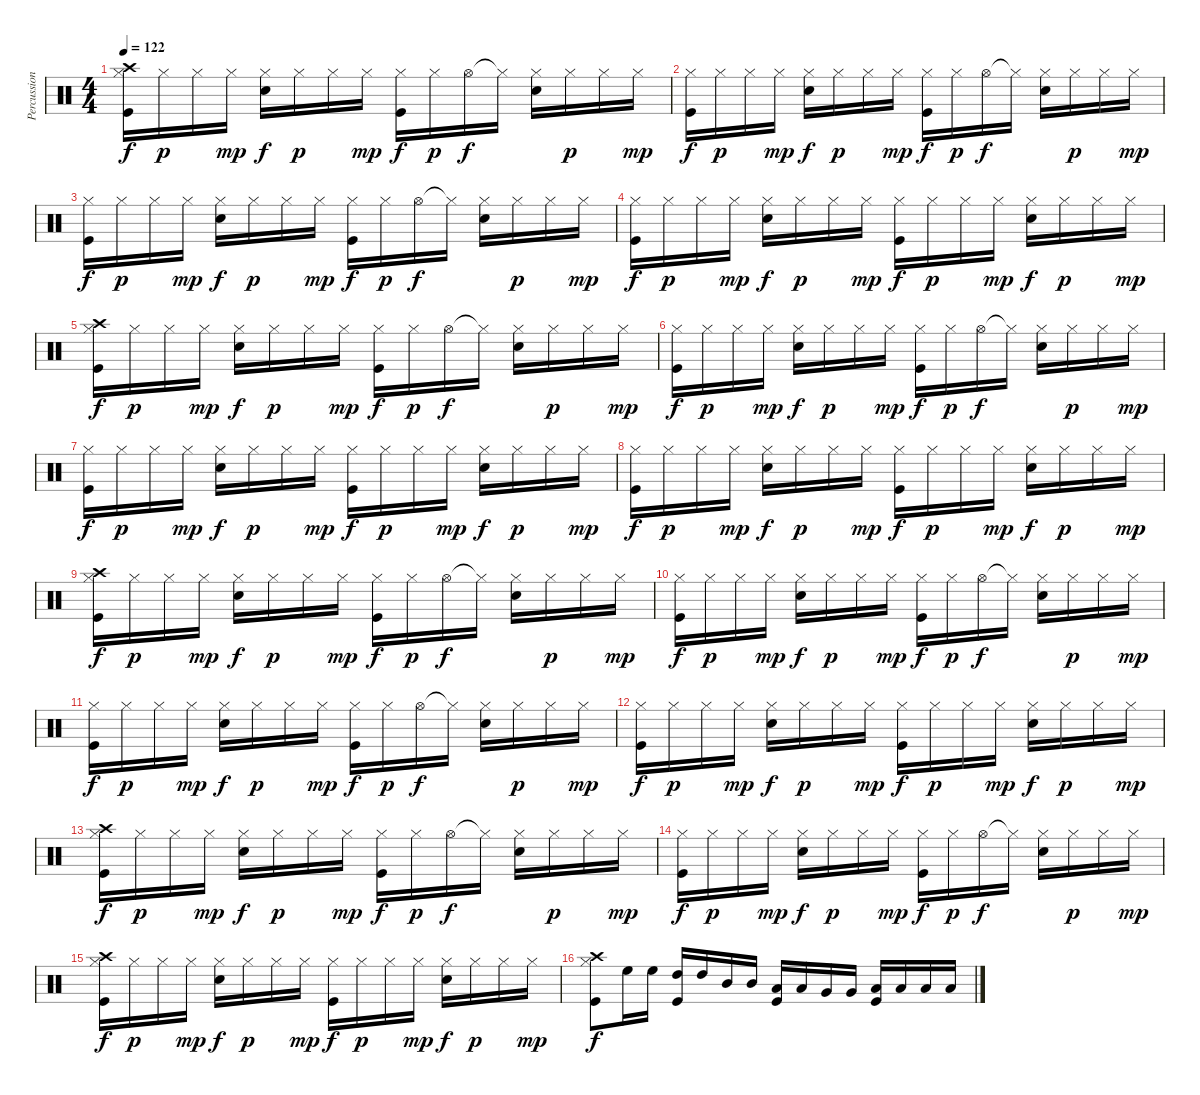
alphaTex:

\track ("Percussioni" "Percussion") {instrument percussion}
\staff {score}
\articulation defaults
\ts (4 4)
\tempo 122
\clef neutral
\ks c
("Crash high (hit)" "Hi-Hat (closed)" "Kick (hit)").16{dy f} "Hi-Hat (closed)".16{dy p} "Hi-Hat (closed)".16 "Hi-Hat (closed)".16{dy mp} ("Hi-Hat (closed)" "Snare (hit) 2").16{dy f} "Hi-Hat (closed)".16{dy p} "Hi-Hat (closed)".16 "Hi-Hat (closed)".16{dy mp} ("Hi-Hat (closed)" "Kick (hit)").16{dy f} "Hi-Hat (closed)".16{dy p} "Hi-Hat (open)".16{dy f} "Hi-Hat (closed)"{t}.16 ("Hi-Hat (closed)" "Snare (hit) 2").16 "Hi-Hat (closed)".16{dy p} "Hi-Hat (closed)".16 "Hi-Hat (closed)".16{dy mp} |
("Hi-Hat (closed)" "Kick (hit)").16{dy f} "Hi-Hat (closed)".16{dy p} "Hi-Hat (closed)".16 "Hi-Hat (closed)".16{dy mp} ("Hi-Hat (closed)" "Snare (hit) 2").16{dy f} "Hi-Hat (closed)".16{dy p} "Hi-Hat (closed)".16 "Hi-Hat (closed)".16{dy mp} ("Hi-Hat (closed)" "Kick (hit)").16{dy f} "Hi-Hat (closed)".16{dy p} "Hi-Hat (open)".16{dy f} "Hi-Hat (closed)"{t}.16 ("Hi-Hat (closed)" "Snare (hit) 2").16 "Hi-Hat (closed)".16{dy p} "Hi-Hat (closed)".16 "Hi-Hat (closed)".16{dy mp} |
("Hi-Hat (closed)" "Kick (hit)").16{dy f} "Hi-Hat (closed)".16{dy p} "Hi-Hat (closed)".16 "Hi-Hat (closed)".16{dy mp} ("Hi-Hat (closed)" "Snare (hit) 2").16{dy f} "Hi-Hat (closed)".16{dy p} "Hi-Hat (closed)".16 "Hi-Hat (closed)".16{dy mp} ("Hi-Hat (closed)" "Kick (hit)").16{dy f} "Hi-Hat (closed)".16{dy p} "Hi-Hat (open)".16{dy f} "Hi-Hat (closed)"{t}.16 ("Hi-Hat (closed)" "Snare (hit) 2").16 "Hi-Hat (closed)".16{dy p} "Hi-Hat (closed)".16 "Hi-Hat (closed)".16{dy mp} |
("Hi-Hat (closed)" "Kick (hit)").16{dy f} "Hi-Hat (closed)".16{dy p} "Hi-Hat (closed)".16 "Hi-Hat (closed)".16{dy mp} ("Hi-Hat (closed)" "Snare (hit) 2").16{dy f} "Hi-Hat (closed)".16{dy p} "Hi-Hat (closed)".16 "Hi-Hat (closed)".16{dy mp} ("Hi-Hat (closed)" "Kick (hit)").16{dy f} "Hi-Hat (closed)".16{dy p} "Hi-Hat (closed)".16 "Hi-Hat (closed)".16{dy mp} ("Hi-Hat (closed)" "Snare (hit) 2").16{dy f} "Hi-Hat (closed)".16{dy p} "Hi-Hat (closed)".16 "Hi-Hat (closed)".16{dy mp} |
("Crash high (hit)" "Hi-Hat (closed)" "Kick (hit)").16{dy f} "Hi-Hat (closed)".16{dy p} "Hi-Hat (closed)".16 "Hi-Hat (closed)".16{dy mp} ("Hi-Hat (closed)" "Snare (hit) 2").16{dy f} "Hi-Hat (closed)".16{dy p} "Hi-Hat (closed)".16 "Hi-Hat (closed)".16{dy mp} ("Hi-Hat (closed)" "Kick (hit)").16{dy f} "Hi-Hat (closed)".16{dy p} "Hi-Hat (open)".16{dy f} "Hi-Hat (closed)"{t}.16 ("Hi-Hat (closed)" "Snare (hit) 2").16 "Hi-Hat (closed)".16{dy p} "Hi-Hat (closed)".16 "Hi-Hat (closed)".16{dy mp} |
("Hi-Hat (closed)" "Kick (hit)").16{dy f} "Hi-Hat (closed)".16{dy p} "Hi-Hat (closed)".16 "Hi-Hat (closed)".16{dy mp} ("Hi-Hat (closed)" "Snare (hit) 2").16{dy f} "Hi-Hat (closed)".16{dy p} "Hi-Hat (closed)".16 "Hi-Hat (closed)".16{dy mp} ("Hi-Hat (closed)" "Kick (hit)").16{dy f} "Hi-Hat (closed)".16{dy p} "Hi-Hat (open)".16{dy f} "Hi-Hat (closed)"{t}.16 ("Hi-Hat (closed)" "Snare (hit) 2").16 "Hi-Hat (closed)".16{dy p} "Hi-Hat (closed)".16 "Hi-Hat (closed)".16{dy mp} |
("Hi-Hat (closed)" "Kick (hit)").16{dy f} "Hi-Hat (closed)".16{dy p} "Hi-Hat (closed)".16 "Hi-Hat (closed)".16{dy mp} ("Hi-Hat (closed)" "Snare (hit) 2").16{dy f} "Hi-Hat (closed)".16{dy p} "Hi-Hat (closed)".16 "Hi-Hat (closed)".16{dy mp} ("Hi-Hat (closed)" "Kick (hit)").16{dy f} "Hi-Hat (closed)".16{dy p} "Hi-Hat (closed)".16 "Hi-Hat (closed)".16{dy mp} ("Hi-Hat (closed)" "Snare (hit) 2").16{dy f} "Hi-Hat (closed)".16{dy p} "Hi-Hat (closed)".16 "Hi-Hat (closed)".16{dy mp} |
("Hi-Hat (closed)" "Kick (hit)").16{dy f} "Hi-Hat (closed)".16{dy p} "Hi-Hat (closed)".16 "Hi-Hat (closed)".16{dy mp} ("Hi-Hat (closed)" "Snare (hit) 2").16{dy f} "Hi-Hat (closed)".16{dy p} "Hi-Hat (closed)".16 "Hi-Hat (closed)".16{dy mp} ("Hi-Hat (closed)" "Kick (hit)").16{dy f} "Hi-Hat (closed)".16{dy p} "Hi-Hat (closed)".16 "Hi-Hat (closed)".16{dy mp} ("Hi-Hat (closed)" "Snare (hit) 2").16{dy f} "Hi-Hat (closed)".16{dy p} "Hi-Hat (closed)".16 "Hi-Hat (closed)".16{dy mp} |
("Crash high (hit)" "Hi-Hat (closed)" "Kick (hit)").16{dy f} "Hi-Hat (closed)".16{dy p} "Hi-Hat (closed)".16 "Hi-Hat (closed)".16{dy mp} ("Hi-Hat (closed)" "Snare (hit) 2").16{dy f} "Hi-Hat (closed)".16{dy p} "Hi-Hat (closed)".16 "Hi-Hat (closed)".16{dy mp} ("Hi-Hat (closed)" "Kick (hit)").16{dy f} "Hi-Hat (closed)".16{dy p} "Hi-Hat (open)".16{dy f} "Hi-Hat (closed)"{t}.16 ("Hi-Hat (closed)" "Snare (hit) 2").16 "Hi-Hat (closed)".16{dy p} "Hi-Hat (closed)".16 "Hi-Hat (closed)".16{dy mp} |
("Hi-Hat (closed)" "Kick (hit)").16{dy f} "Hi-Hat (closed)".16{dy p} "Hi-Hat (closed)".16 "Hi-Hat (closed)".16{dy mp} ("Hi-Hat (closed)" "Snare (hit) 2").16{dy f} "Hi-Hat (closed)".16{dy p} "Hi-Hat (closed)".16 "Hi-Hat (closed)".16{dy mp} ("Hi-Hat (closed)" "Kick (hit)").16{dy f} "Hi-Hat (closed)".16{dy p} "Hi-Hat (open)".16{dy f} "Hi-Hat (closed)"{t}.16 ("Hi-Hat (closed)" "Snare (hit) 2").16 "Hi-Hat (closed)".16{dy p} "Hi-Hat (closed)".16 "Hi-Hat (closed)".16{dy mp} |
("Hi-Hat (closed)" "Kick (hit)").16{dy f} "Hi-Hat (closed)".16{dy p} "Hi-Hat (closed)".16 "Hi-Hat (closed)".16{dy mp} ("Hi-Hat (closed)" "Snare (hit) 2").16{dy f} "Hi-Hat (closed)".16{dy p} "Hi-Hat (closed)".16 "Hi-Hat (closed)".16{dy mp} ("Hi-Hat (closed)" "Kick (hit)").16{dy f} "Hi-Hat (closed)".16{dy p} "Hi-Hat (open)".16{dy f} "Hi-Hat (closed)"{t}.16 ("Hi-Hat (closed)" "Snare (hit) 2").16 "Hi-Hat (closed)".16{dy p} "Hi-Hat (closed)".16 "Hi-Hat (closed)".16{dy mp} |
("Hi-Hat (closed)" "Kick (hit)").16{dy f} "Hi-Hat (closed)".16{dy p} "Hi-Hat (closed)".16 "Hi-Hat (closed)".16{dy mp} ("Hi-Hat (closed)" "Snare (hit) 2").16{dy f} "Hi-Hat (closed)".16{dy p} "Hi-Hat (closed)".16 "Hi-Hat (closed)".16{dy mp} ("Hi-Hat (closed)" "Kick (hit)").16{dy f} "Hi-Hat (closed)".16{dy p} "Hi-Hat (closed)".16 "Hi-Hat (closed)".16{dy mp} ("Hi-Hat (closed)" "Snare (hit) 2").16{dy f} "Hi-Hat (closed)".16{dy p} "Hi-Hat (closed)".16 "Hi-Hat (closed)".16{dy mp} |
("Crash high (hit)" "Hi-Hat (closed)" "Kick (hit)").16{dy f} "Hi-Hat (closed)".16{dy p} "Hi-Hat (closed)".16 "Hi-Hat (closed)".16{dy mp} ("Hi-Hat (closed)" "Snare (hit) 2").16{dy f} "Hi-Hat (closed)".16{dy p} "Hi-Hat (closed)".16 "Hi-Hat (closed)".16{dy mp} ("Hi-Hat (closed)" "Kick (hit)").16{dy f} "Hi-Hat (closed)".16{dy p} "Hi-Hat (open)".16{dy f} "Hi-Hat (closed)"{t}.16 ("Hi-Hat (closed)" "Snare (hit) 2").16 "Hi-Hat (closed)".16{dy p} "Hi-Hat (closed)".16 "Hi-Hat (closed)".16{dy mp} |
("Hi-Hat (closed)" "Kick (hit)").16{dy f} "Hi-Hat (closed)".16{dy p} "Hi-Hat (closed)".16 "Hi-Hat (closed)".16{dy mp} ("Hi-Hat (closed)" "Snare (hit) 2").16{dy f} "Hi-Hat (closed)".16{dy p} "Hi-Hat (closed)".16 "Hi-Hat (closed)".16{dy mp} ("Hi-Hat (closed)" "Kick (hit)").16{dy f} "Hi-Hat (closed)".16{dy p} "Hi-Hat (open)".16{dy f} "Hi-Hat (closed)"{t}.16 ("Hi-Hat (closed)" "Snare (hit) 2").16 "Hi-Hat (closed)".16{dy p} "Hi-Hat (closed)".16 "Hi-Hat (closed)".16{dy mp} |
("Crash high (hit)" "Hi-Hat (closed)" "Kick (hit)").16{dy f} "Hi-Hat (closed)".16{dy p} "Hi-Hat (closed)".16 "Hi-Hat (closed)".16{dy mp} ("Hi-Hat (closed)" "Snare (hit) 2").16{dy f} "Hi-Hat (closed)".16{dy p} "Hi-Hat (closed)".16 "Hi-Hat (closed)".16{dy mp} ("Hi-Hat (closed)" "Kick (hit)").16{dy f} "Hi-Hat (closed)".16{dy p} "Hi-Hat (closed)".16 "Hi-Hat (closed)".16{dy mp} ("Hi-Hat (closed)" "Snare (hit) 2").16{dy f} "Hi-Hat (closed)".16{dy p} "Hi-Hat (closed)".16 "Hi-Hat (closed)".16{dy mp} |
("Crash high (hit)" "Hi-Hat (closed)" "Kick (hit)").8{dy f} "High Floor Tom (hit)".16 "High Floor Tom (hit)".16 ("High Tom (hit)" "Kick (hit)").16 "High Tom (hit)".16 "Mid Tom (hit)".16 "Mid Tom (hit)".16 ("Low Tom (hit)" "Kick (hit)").16 "Low Tom (hit)".16 "Very Low Tom (hit)".16 "Very Low Tom (hit)".16 ("Low Floor Tom (hit)" "Kick (hit)").16 "Low Floor Tom (hit)".16 "Low Floor Tom (hit)".16 "Low Floor Tom (hit)".16
